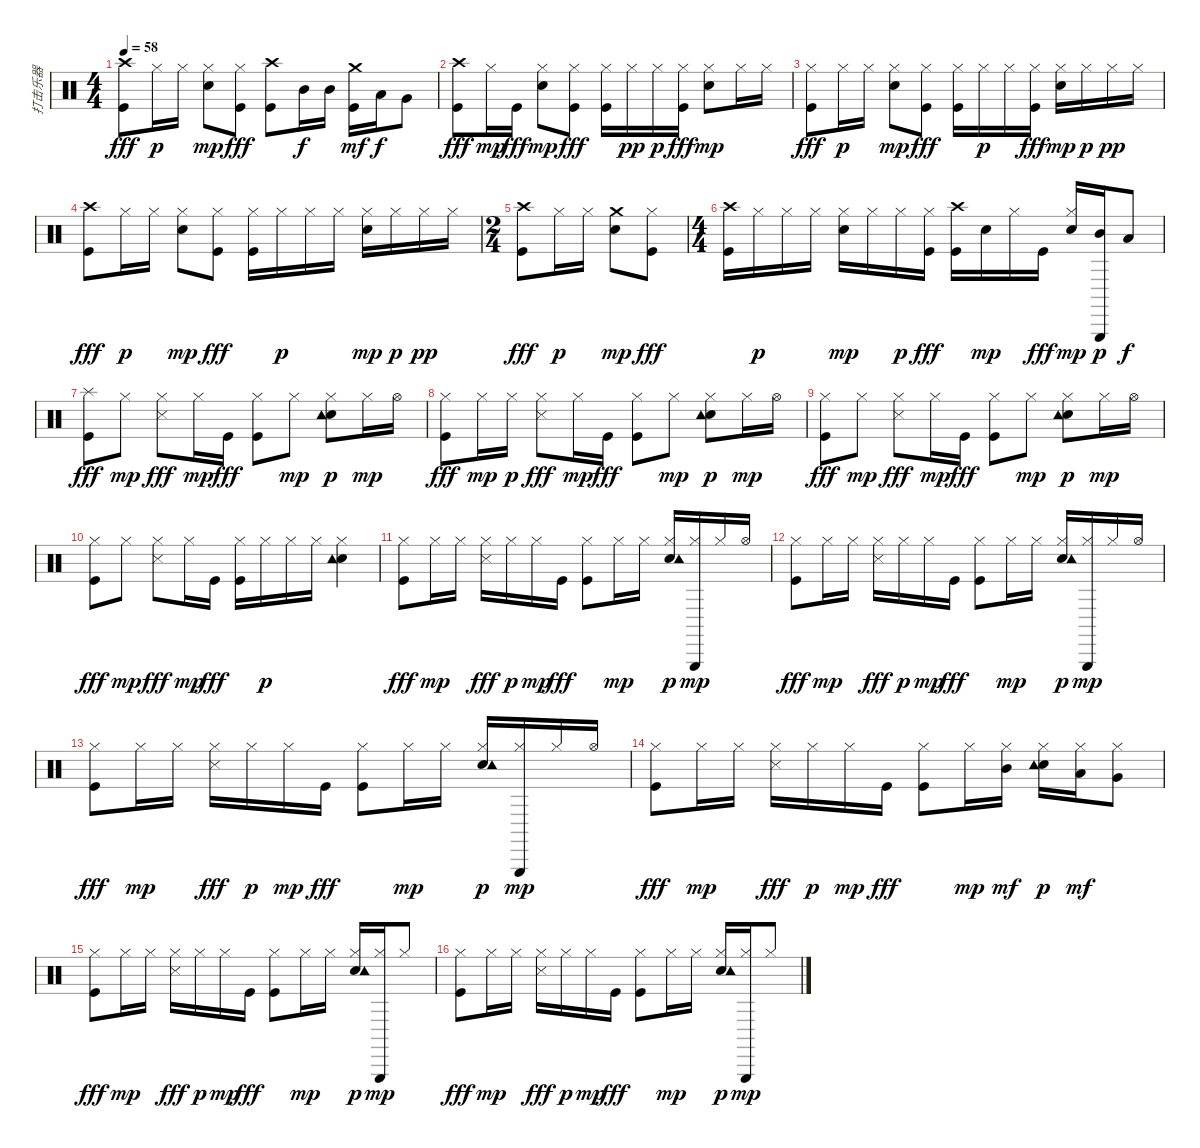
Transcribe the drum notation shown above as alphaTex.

\track ("打击乐器" "打击乐器") {instrument percussion}
\staff {score}
\articulation defaults
\ts (4 4)
\tempo 58
\clef neutral
\ks c
("Crash high (hit)" "Kick (hit)").8{dy fff} "Hi-Hat (closed)".16{dy p} "Hi-Hat (closed)".16 ("Hi-Hat (closed)" "Electric Snare (hit)").8{dy mp} ("Hi-Hat (closed)" "Kick (hit)").8{dy fff} ("Crash high (hit)" "Kick (hit)").8 "Mid Tom (hit)".16{dy f} "Mid Tom (hit)".16 ("Crash medium (hit)" "Kick (hit)").16{dy mf} "Low Tom (hit)".16{dy f} "Very Low Tom (hit)".8 |
("Crash high (hit)" "Kick (hit)").8{dy fff} "Hi-Hat (closed)".16{dy mp} "Kick (hit)".16{dy fff} ("Hi-Hat (closed)" "Electric Snare (hit)").8{dy mp} ("Hi-Hat (closed)" "Kick (hit)").8{dy fff} ("Hi-Hat (closed)" "Kick (hit)").16 "Hi-Hat (closed)".16{dy pp} "Hi-Hat (closed)".16{dy p} ("Hi-Hat (closed)" "Kick (hit)").16{dy fff} ("Hi-Hat (closed)" "Electric Snare (hit)").8{dy mp} "Hi-Hat (closed)".16 "Hi-Hat (closed)".16 |
("Hi-Hat (closed)" "Kick (hit)").8{dy fff} "Hi-Hat (closed)".16{dy p} "Hi-Hat (closed)".16 ("Hi-Hat (closed)" "Electric Snare (hit)").8{dy mp} ("Hi-Hat (closed)" "Kick (hit)").8{dy fff} ("Hi-Hat (closed)" "Kick (hit)").16 "Hi-Hat (closed)".16{dy p} "Hi-Hat (closed)".16 ("Hi-Hat (closed)" "Kick (hit)").16{dy fff} ("Hi-Hat (closed)" "Electric Snare (hit)").16{dy mp} "Hi-Hat (closed)".16{dy p} "Hi-Hat (closed)".16{dy pp} "Hi-Hat (closed)".16 |
("Crash high (hit)" "Kick (hit)").8{dy fff} "Hi-Hat (closed)".16{dy p} "Hi-Hat (closed)".16 ("Hi-Hat (closed)" "Electric Snare (hit)").8{dy mp} ("Hi-Hat (closed)" "Kick (hit)").8{dy fff} ("Hi-Hat (closed)" "Kick (hit)").16 "Hi-Hat (closed)".16{dy p} "Hi-Hat (closed)".16 "Hi-Hat (closed)".16 ("Hi-Hat (closed)" "Electric Snare (hit)").16{dy mp} "Hi-Hat (closed)".16{dy p} "Hi-Hat (closed)".16{dy pp} "Hi-Hat (closed)".16 |
\ts (2 4)
("Crash high (hit)" "Kick (hit)").8{dy fff} "Hi-Hat (closed)".16{dy p} "Hi-Hat (closed)".16 ("Crash medium (hit)" "Electric Snare (hit)").8{dy mp} ("Hi-Hat (closed)" "Kick (hit)").8{dy fff} |
\ts (4 4)
("Crash high (hit)" "Kick (hit)").16 "Hi-Hat (closed)".16{dy p} "Hi-Hat (closed)".16 "Hi-Hat (closed)".16 ("Hi-Hat (closed)" "Electric Snare (hit)").16{dy mp} "Hi-Hat (closed)".16 "Hi-Hat (closed)".16{dy p} ("Hi-Hat (closed)" "Kick (hit)").16{dy fff} ("Crash high (hit)" "Kick (hit)").16 "Electric Snare (hit)".16{dy mp} "Hi-Hat (closed)".16 "Kick (hit)".16{dy fff} ("Hi-Hat (closed)" "Electric Snare (hit)").16{dy mp} ("Mid Tom (hit)" "Triangle (hit)").16{dy p} "Low Tom (hit)".8{dy f} |
("Splash (hit)" "Kick (hit)").8{dy fff} "Hi-Hat (closed)".8{dy mp} ("Hi-Hat (closed)" "Snare (side stick) 3").8{dy fff} "Hi-Hat (closed)".16{dy mp} "Kick (hit)".16{dy fff} ("Hi-Hat (closed)" "Kick (hit)").8 "Hi-Hat (closed)".8{dy mp} ("Hi-Hat (closed)" "Electric Snare (hit)" "Tambourine (hit)").8{dy p} "Hi-Hat (closed)".16{dy mp} "Hi-Hat (open)".16 |
("Hi-Hat (closed)" "Kick (hit)").8{dy fff} "Hi-Hat (closed)".16{dy mp} "Hi-Hat (closed)".16{dy p} ("Hi-Hat (closed)" "Snare (side stick) 3").8{dy fff} "Hi-Hat (closed)".16{dy mp} "Kick (hit)".16{dy fff} ("Hi-Hat (closed)" "Kick (hit)").8 "Hi-Hat (closed)".8{dy mp} ("Hi-Hat (closed)" "Electric Snare (hit)" "Tambourine (hit)").8{dy p} "Hi-Hat (closed)".16{dy mp} "Hi-Hat (open)".16 |
("Hi-Hat (closed)" "Kick (hit)").8{dy fff} "Hi-Hat (closed)".8{dy mp} ("Hi-Hat (closed)" "Snare (side stick) 3").8{dy fff} "Hi-Hat (closed)".16{dy mp} "Kick (hit)".16{dy fff} ("Hi-Hat (closed)" "Kick (hit)").8 "Hi-Hat (closed)".8{dy mp} ("Hi-Hat (closed)" "Electric Snare (hit)" "Tambourine (hit)").8{dy p} "Hi-Hat (closed)".16{dy mp} "Hi-Hat (open)".16 |
("Hi-Hat (closed)" "Kick (hit)").8{dy fff} "Hi-Hat (closed)".8{dy mp} ("Hi-Hat (closed)" "Snare (side stick) 3").8{dy fff} "Hi-Hat (closed)".16{dy mp} "Kick (hit)".16{dy fff} ("Hi-Hat (closed)" "Kick (hit)").16 "Hi-Hat (closed)".16{dy p} "Hi-Hat (closed)".16 "Hi-Hat (closed)".16 ("Hi-Hat (closed)" "Hand Clap (hit)" "Tambourine (hit)").4 |
("Hi-Hat (closed)" "Kick (hit)").8{dy fff} "Hi-Hat (closed)".16{dy mp} "Hi-Hat (closed)".16 ("Hi-Hat (closed)" "Snare (side stick) 3").16{dy fff} "Hi-Hat (closed)".16{dy p} "Hi-Hat (closed)".16{dy mp} "Kick (hit)".16{dy fff} ("Hi-Hat (closed)" "Kick (hit)").8 "Hi-Hat (closed)".16{dy mp} "Hi-Hat (closed)".16 ("Hi-Hat (closed)" "Hand Clap (hit)" "Tambourine (hit)").16{dy p} ("Hi-Hat (closed)" "Triangle (hit)").16{dy mp} "Hi-Hat (closed)".16 "Hi-Hat (open)".16 |
("Hi-Hat (closed)" "Kick (hit)").8{dy fff} "Hi-Hat (closed)".16{dy mp} "Hi-Hat (closed)".16 ("Hi-Hat (closed)" "Snare (side stick) 3").16{dy fff} "Hi-Hat (closed)".16{dy p} "Hi-Hat (closed)".16{dy mp} "Kick (hit)".16{dy fff} ("Hi-Hat (closed)" "Kick (hit)").8 "Hi-Hat (closed)".16{dy mp} "Hi-Hat (closed)".16 ("Hi-Hat (closed)" "Hand Clap (hit)" "Tambourine (hit)").16{dy p} ("Hi-Hat (closed)" "Triangle (hit)").16{dy mp} "Hi-Hat (closed)".16 "Hi-Hat (open)".16 |
("Hi-Hat (closed)" "Kick (hit)").8{dy fff} "Hi-Hat (closed)".16{dy mp} "Hi-Hat (closed)".16 ("Hi-Hat (closed)" "Snare (side stick) 3").16{dy fff} "Hi-Hat (closed)".16{dy p} "Hi-Hat (closed)".16{dy mp} "Kick (hit)".16{dy fff} ("Hi-Hat (closed)" "Kick (hit)").8 "Hi-Hat (closed)".16{dy mp} "Hi-Hat (closed)".16 ("Hi-Hat (closed)" "Hand Clap (hit)" "Tambourine (hit)").16{dy p} ("Hi-Hat (closed)" "Triangle (hit)").16{dy mp} "Hi-Hat (closed)".16 "Hi-Hat (open)".16 |
("Hi-Hat (closed)" "Kick (hit)").8{dy fff} "Hi-Hat (closed)".16{dy mp} "Hi-Hat (closed)".16 ("Hi-Hat (closed)" "Snare (side stick) 3").16{dy fff} "Hi-Hat (closed)".16{dy p} "Hi-Hat (closed)".16{dy mp} "Kick (hit)".16{dy fff} ("Hi-Hat (closed)" "Kick (hit)").8 "Hi-Hat (closed)".16{dy mp} ("Hi-Hat (closed)" "Mid Tom (hit)").16{dy mf} ("Hi-Hat (closed)" "Hand Clap (hit)" "Tambourine (hit)").16{dy p} ("Hi-Hat (closed)" "Low Tom (hit)").16{dy mf} ("Hi-Hat (closed)" "Very Low Tom (hit)").8 |
("Hi-Hat (closed)" "Kick (hit)").8{dy fff} "Hi-Hat (closed)".16{dy mp} "Hi-Hat (closed)".16 ("Hi-Hat (closed)" "Snare (side stick) 3").16{dy fff} "Hi-Hat (closed)".16{dy p} "Hi-Hat (closed)".16{dy mp} "Kick (hit)".16{dy fff} ("Hi-Hat (closed)" "Kick (hit)").8 "Hi-Hat (closed)".16{dy mp} "Hi-Hat (closed)".16 ("Hi-Hat (closed)" "Hand Clap (hit)" "Tambourine (hit)").16{dy p} ("Hi-Hat (closed)" "Triangle (hit)").16{dy mp} "Hi-Hat (closed)".8 |
("Hi-Hat (closed)" "Kick (hit)").8{dy fff} "Hi-Hat (closed)".16{dy mp} "Hi-Hat (closed)".16 ("Hi-Hat (closed)" "Snare (side stick) 3").16{dy fff} "Hi-Hat (closed)".16{dy p} "Hi-Hat (closed)".16{dy mp} "Kick (hit)".16{dy fff} ("Hi-Hat (closed)" "Kick (hit)").8 "Hi-Hat (closed)".16{dy mp} "Hi-Hat (closed)".16 ("Hi-Hat (closed)" "Hand Clap (hit)" "Tambourine (hit)").16{dy p} ("Hi-Hat (closed)" "Triangle (hit)").16{dy mp} "Hi-Hat (closed)".8
